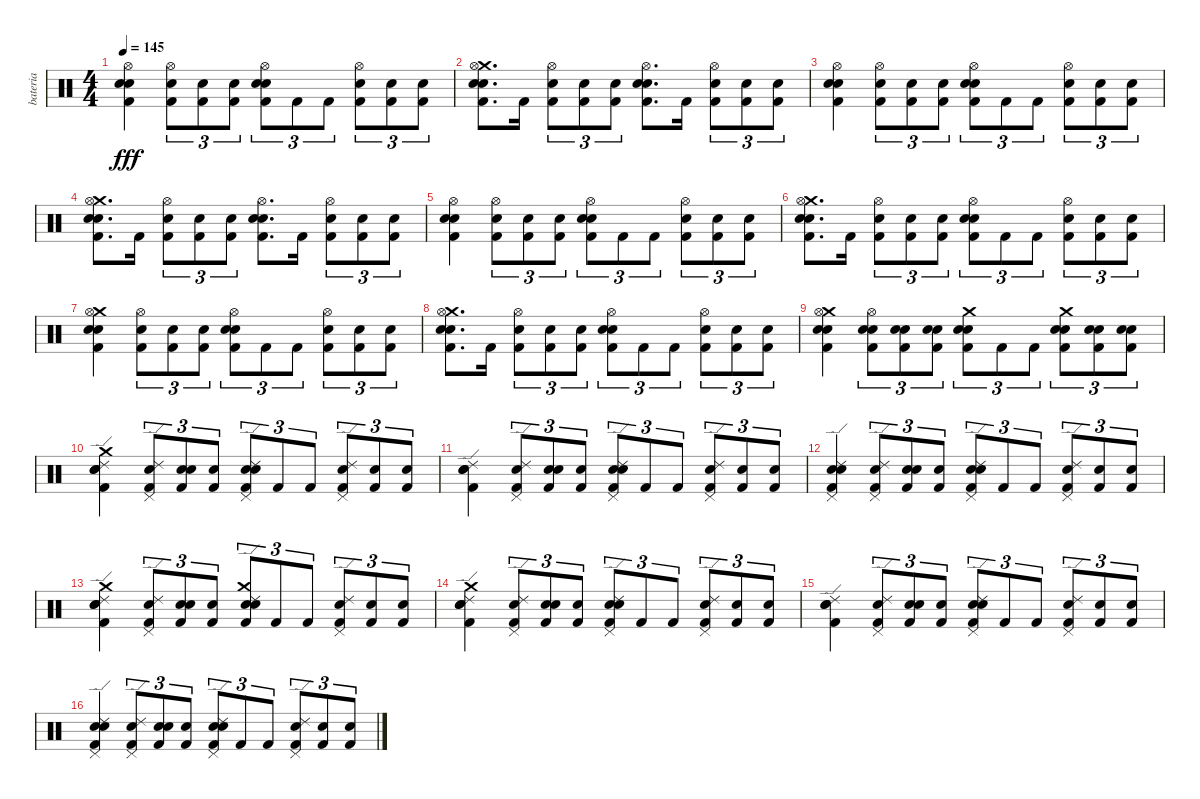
\track ("bateria" "bateria") {instrument percussion}
\staff {score}
\articulation defaults
\ts (4 4)
\tempo 145
\clef neutral
\ks c
("Snare (hit)" "Kick (hit) 2" "Snare (hit) 2" "Hi-Hat (open)").4{dy fff} ("Snare (hit)" "Kick (hit) 2" "Hi-Hat (open)").8{tu (3 2)} ("Snare (hit)" "Kick (hit) 2").8{tu (3 2)} ("Snare (hit)" "Kick (hit) 2").8{tu (3 2)} ("Snare (hit)" "Kick (hit) 2" "Snare (hit) 2" "Hi-Hat (open)").8{tu (3 2)} "Kick (hit) 2".8{tu (3 2)} "Kick (hit) 2".8{tu (3 2)} ("Snare (hit)" "Kick (hit) 2" "Hi-Hat (open)").8{tu (3 2)} ("Snare (hit)" "Kick (hit) 2").8{tu (3 2)} ("Snare (hit)" "Kick (hit) 2").8{tu (3 2)} |
("Snare (hit)" "Kick (hit) 2" "Snare (hit) 2" "Crash medium (hit)" "Hi-Hat (open)").8{d} "Kick (hit) 2".16 ("Snare (hit)" "Kick (hit) 2" "Hi-Hat (open)").8{tu (3 2)} ("Snare (hit)" "Kick (hit) 2").8{tu (3 2)} ("Snare (hit)" "Kick (hit) 2").8{tu (3 2)} ("Snare (hit)" "Kick (hit) 2" "Snare (hit) 2" "Hi-Hat (open)").8{d} "Kick (hit) 2".16 ("Snare (hit)" "Kick (hit) 2" "Hi-Hat (open)").8{tu (3 2)} ("Snare (hit)" "Kick (hit) 2").8{tu (3 2)} ("Snare (hit)" "Kick (hit) 2").8{tu (3 2)} |
("Snare (hit)" "Kick (hit) 2" "Snare (hit) 2" "Hi-Hat (open)").4 ("Snare (hit)" "Kick (hit) 2" "Hi-Hat (open)").8{tu (3 2)} ("Snare (hit)" "Kick (hit) 2").8{tu (3 2)} ("Snare (hit)" "Kick (hit) 2").8{tu (3 2)} ("Snare (hit)" "Kick (hit) 2" "Snare (hit) 2" "Hi-Hat (open)").8{tu (3 2)} "Kick (hit) 2".8{tu (3 2)} "Kick (hit) 2".8{tu (3 2)} ("Snare (hit)" "Kick (hit) 2" "Hi-Hat (open)").8{tu (3 2)} ("Snare (hit)" "Kick (hit) 2").8{tu (3 2)} ("Snare (hit)" "Kick (hit) 2").8{tu (3 2)} |
("Snare (hit)" "Kick (hit) 2" "Snare (hit) 2" "Crash medium (hit)" "Hi-Hat (open)").8{d} "Kick (hit) 2".16 ("Snare (hit)" "Kick (hit) 2" "Hi-Hat (open)").8{tu (3 2)} ("Snare (hit)" "Kick (hit) 2").8{tu (3 2)} ("Snare (hit)" "Kick (hit) 2").8{tu (3 2)} ("Snare (hit)" "Kick (hit) 2" "Snare (hit) 2" "Hi-Hat (open)").8{d} "Kick (hit) 2".16 ("Snare (hit)" "Kick (hit) 2" "Hi-Hat (open)").8{tu (3 2)} ("Snare (hit)" "Kick (hit) 2").8{tu (3 2)} ("Snare (hit)" "Kick (hit) 2").8{tu (3 2)} |
("Snare (hit)" "Kick (hit) 2" "Snare (hit) 2" "Hi-Hat (open)").4 ("Snare (hit)" "Kick (hit) 2" "Hi-Hat (open)").8{tu (3 2)} ("Snare (hit)" "Kick (hit) 2").8{tu (3 2)} ("Snare (hit)" "Kick (hit) 2").8{tu (3 2)} ("Snare (hit)" "Kick (hit) 2" "Snare (hit) 2" "Hi-Hat (open)").8{tu (3 2)} "Kick (hit) 2".8{tu (3 2)} "Kick (hit) 2".8{tu (3 2)} ("Snare (hit)" "Kick (hit) 2" "Hi-Hat (open)").8{tu (3 2)} ("Snare (hit)" "Kick (hit) 2").8{tu (3 2)} ("Snare (hit)" "Kick (hit) 2").8{tu (3 2)} |
("Snare (hit)" "Kick (hit) 2" "Snare (hit) 2" "Crash medium (hit)" "Hi-Hat (open)").8{d} "Kick (hit) 2".16 ("Snare (hit)" "Kick (hit) 2" "Hi-Hat (open)").8{tu (3 2)} ("Snare (hit)" "Kick (hit) 2").8{tu (3 2)} ("Snare (hit)" "Kick (hit) 2").8{tu (3 2)} ("Snare (hit)" "Kick (hit) 2" "Snare (hit) 2" "Hi-Hat (open)").8{tu (3 2)} "Kick (hit) 2".8{tu (3 2)} "Kick (hit) 2".8{tu (3 2)} ("Snare (hit)" "Kick (hit) 2" "Hi-Hat (open)").8{tu (3 2)} ("Snare (hit)" "Kick (hit) 2").8{tu (3 2)} ("Snare (hit)" "Kick (hit) 2").8{tu (3 2)} |
("Snare (hit)" "Kick (hit) 2" "Snare (hit) 2" "Crash medium (hit)" "Hi-Hat (open)").4 ("Snare (hit)" "Kick (hit) 2" "Hi-Hat (open)").8{tu (3 2)} ("Snare (hit)" "Kick (hit) 2").8{tu (3 2)} ("Snare (hit)" "Kick (hit) 2").8{tu (3 2)} ("Snare (hit)" "Kick (hit) 2" "Snare (hit) 2" "Hi-Hat (open)").8{tu (3 2)} "Kick (hit) 2".8{tu (3 2)} "Kick (hit) 2".8{tu (3 2)} ("Snare (hit)" "Kick (hit) 2" "Hi-Hat (open)").8{tu (3 2)} ("Snare (hit)" "Kick (hit) 2").8{tu (3 2)} ("Snare (hit)" "Kick (hit) 2").8{tu (3 2)} |
("Snare (hit)" "Kick (hit) 2" "Snare (hit) 2" "Crash medium (hit)" "Hi-Hat (open)").8{d} "Kick (hit) 2".16 ("Snare (hit)" "Kick (hit) 2" "Hi-Hat (open)").8{tu (3 2)} ("Snare (hit)" "Kick (hit) 2").8{tu (3 2)} ("Snare (hit)" "Kick (hit) 2").8{tu (3 2)} ("Snare (hit)" "Kick (hit) 2" "Snare (hit) 2" "Hi-Hat (open)").8{tu (3 2)} "Kick (hit) 2".8{tu (3 2)} "Kick (hit) 2".8{tu (3 2)} ("Snare (hit)" "Kick (hit) 2" "Hi-Hat (open)").8{tu (3 2)} ("Snare (hit)" "Kick (hit) 2").8{tu (3 2)} ("Snare (hit)" "Kick (hit) 2").8{tu (3 2)} |
("Snare (hit)" "Kick (hit) 2" "Snare (hit) 2" "Crash medium (hit)" "Hi-Hat (open)").4 ("Snare (hit)" "Kick (hit) 2" "Snare (hit) 2" "Hi-Hat (open)").8{tu (3 2)} ("Snare (hit)" "Kick (hit) 2" "Snare (hit) 2").8{tu (3 2)} ("Snare (hit)" "Kick (hit) 2" "Snare (hit) 2").8{tu (3 2)} ("Snare (hit)" "Kick (hit) 2" "Snare (hit) 2" "Crash medium (hit)").8{tu (3 2)} "Kick (hit) 2".8{tu (3 2)} "Kick (hit) 2".8{tu (3 2)} ("Snare (hit)" "Kick (hit) 2" "Snare (hit) 2" "Crash medium (hit)").8{tu (3 2)} ("Snare (hit)" "Kick (hit) 2" "Snare (hit) 2").8{tu (3 2)} ("Snare (hit)" "Kick (hit) 2" "Snare (hit) 2").8{tu (3 2)} |
("Snare (hit)" "Kick (hit) 2" "Snare (hit) 2" "Crash medium (hit)" "Ride (edge) 2").4 ("Snare (hit)" "Kick (hit) 2" "Ride (edge) 2" "Pedal Hi-Hat (hit)").8{tu (3 2)} ("Snare (hit)" "Kick (hit) 2" "Snare (hit)").8{tu (3 2)} ("Snare (hit)" "Kick (hit) 2").8{tu (3 2)} ("Snare (hit)" "Kick (hit) 2" "Snare (hit) 2" "Ride (edge) 2" "Pedal Hi-Hat (hit)").8{tu (3 2)} "Kick (hit) 2".8{tu (3 2)} "Kick (hit) 2".8{tu (3 2)} ("Snare (hit)" "Kick (hit) 2" "Ride (edge) 2" "Pedal Hi-Hat (hit)").8{tu (3 2)} ("Snare (hit)" "Kick (hit) 2").8{tu (3 2)} ("Snare (hit)" "Kick (hit) 2").8{tu (3 2)} |
("Snare (hit)" "Kick (hit) 2" "Snare (hit) 2" "Ride (edge) 2").4 ("Snare (hit)" "Kick (hit) 2" "Ride (edge) 2" "Pedal Hi-Hat (hit)").8{tu (3 2)} ("Snare (hit)" "Kick (hit) 2" "Snare (hit)").8{tu (3 2)} ("Snare (hit)" "Kick (hit) 2").8{tu (3 2)} ("Snare (hit)" "Kick (hit) 2" "Snare (hit) 2" "Ride (edge) 2" "Pedal Hi-Hat (hit)").8{tu (3 2)} "Kick (hit) 2".8{tu (3 2)} "Kick (hit) 2".8{tu (3 2)} ("Snare (hit)" "Kick (hit) 2" "Ride (edge) 2" "Pedal Hi-Hat (hit)").8{tu (3 2)} ("Snare (hit)" "Kick (hit) 2").8{tu (3 2)} ("Snare (hit)" "Kick (hit) 2").8{tu (3 2)} |
("Snare (hit)" "Kick (hit) 2" "Snare (hit) 2" "Ride (edge) 2" "Pedal Hi-Hat (hit)").4 ("Snare (hit)" "Kick (hit) 2" "Ride (edge) 2" "Pedal Hi-Hat (hit)").8{tu (3 2)} ("Snare (hit)" "Kick (hit) 2" "Snare (hit)").8{tu (3 2)} ("Snare (hit)" "Kick (hit) 2").8{tu (3 2)} ("Snare (hit)" "Kick (hit) 2" "Snare (hit) 2" "Ride (edge) 2" "Pedal Hi-Hat (hit)").8{tu (3 2)} "Kick (hit) 2".8{tu (3 2)} "Kick (hit) 2".8{tu (3 2)} ("Snare (hit)" "Kick (hit) 2" "Ride (edge) 2" "Pedal Hi-Hat (hit)").8{tu (3 2)} ("Snare (hit)" "Kick (hit) 2").8{tu (3 2)} ("Snare (hit)" "Kick (hit) 2").8{tu (3 2)} |
("Snare (hit)" "Kick (hit) 2" "Snare (hit) 2" "Crash medium (hit)" "Ride (edge) 2").4 ("Snare (hit)" "Kick (hit) 2" "Ride (edge) 2" "Pedal Hi-Hat (hit)").8{tu (3 2)} ("Snare (hit)" "Kick (hit) 2" "Snare (hit)").8{tu (3 2)} ("Snare (hit)" "Kick (hit) 2").8{tu (3 2)} ("Snare (hit)" "Kick (hit) 2" "Snare (hit) 2" "Crash medium (hit)" "Ride (edge) 2").8{tu (3 2)} "Kick (hit) 2".8{tu (3 2)} "Kick (hit) 2".8{tu (3 2)} ("Snare (hit)" "Kick (hit) 2" "Ride (edge) 2" "Pedal Hi-Hat (hit)").8{tu (3 2)} ("Snare (hit)" "Kick (hit) 2").8{tu (3 2)} ("Snare (hit)" "Kick (hit) 2").8{tu (3 2)} |
("Snare (hit)" "Kick (hit) 2" "Snare (hit) 2" "Crash medium (hit)" "Ride (edge) 2").4 ("Snare (hit)" "Kick (hit) 2" "Ride (edge) 2" "Pedal Hi-Hat (hit)").8{tu (3 2)} ("Snare (hit)" "Kick (hit) 2" "Snare (hit)").8{tu (3 2)} ("Snare (hit)" "Kick (hit) 2").8{tu (3 2)} ("Snare (hit)" "Kick (hit) 2" "Snare (hit) 2" "Ride (edge) 2" "Pedal Hi-Hat (hit)").8{tu (3 2)} "Kick (hit) 2".8{tu (3 2)} "Kick (hit) 2".8{tu (3 2)} ("Snare (hit)" "Kick (hit) 2" "Ride (edge) 2" "Pedal Hi-Hat (hit)").8{tu (3 2)} ("Snare (hit)" "Kick (hit) 2").8{tu (3 2)} ("Snare (hit)" "Kick (hit) 2").8{tu (3 2)} |
("Snare (hit)" "Kick (hit) 2" "Snare (hit) 2" "Ride (edge) 2").4 ("Snare (hit)" "Kick (hit) 2" "Ride (edge) 2" "Pedal Hi-Hat (hit)").8{tu (3 2)} ("Snare (hit)" "Kick (hit) 2" "Snare (hit)").8{tu (3 2)} ("Snare (hit)" "Kick (hit) 2").8{tu (3 2)} ("Snare (hit)" "Kick (hit) 2" "Snare (hit) 2" "Ride (edge) 2" "Pedal Hi-Hat (hit)").8{tu (3 2)} "Kick (hit) 2".8{tu (3 2)} "Kick (hit) 2".8{tu (3 2)} ("Snare (hit)" "Kick (hit) 2" "Ride (edge) 2" "Pedal Hi-Hat (hit)").8{tu (3 2)} ("Snare (hit)" "Kick (hit) 2").8{tu (3 2)} ("Snare (hit)" "Kick (hit) 2").8{tu (3 2)} |
("Snare (hit)" "Kick (hit) 2" "Snare (hit) 2" "Ride (edge) 2" "Pedal Hi-Hat (hit)").4 ("Snare (hit)" "Kick (hit) 2" "Ride (edge) 2" "Pedal Hi-Hat (hit)").8{tu (3 2)} ("Snare (hit)" "Kick (hit) 2" "Snare (hit)").8{tu (3 2)} ("Snare (hit)" "Kick (hit) 2").8{tu (3 2)} ("Snare (hit)" "Kick (hit) 2" "Snare (hit) 2" "Ride (edge) 2" "Pedal Hi-Hat (hit)").8{tu (3 2)} "Kick (hit) 2".8{tu (3 2)} "Kick (hit) 2".8{tu (3 2)} ("Snare (hit)" "Kick (hit) 2" "Ride (edge) 2" "Pedal Hi-Hat (hit)").8{tu (3 2)} ("Snare (hit)" "Kick (hit) 2").8{tu (3 2)} ("Snare (hit)" "Kick (hit) 2").8{tu (3 2)}
